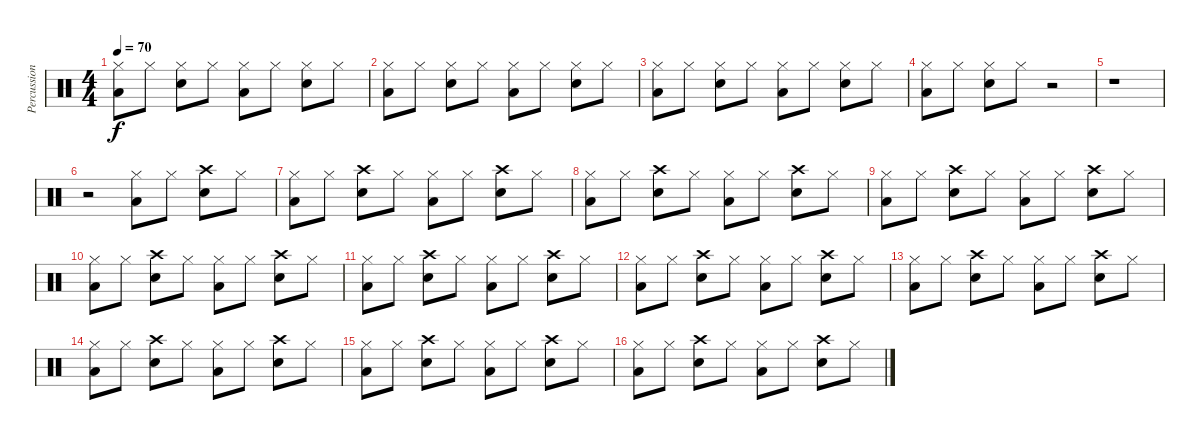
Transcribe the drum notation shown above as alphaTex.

\track ("Percussions" "Percussion") {instrument percussion}
\staff {score}
\articulation defaults
\ts (4 4)
\tempo 70
\clef neutral
\ks c
("Hi-Hat (closed)" "Low Floor Tom (hit)").8{dy f} "Hi-Hat (closed)".8 ("Hi-Hat (closed)" "Electric Snare (hit)").8 "Hi-Hat (closed)".8 ("Hi-Hat (closed)" "Low Floor Tom (hit)").8 "Hi-Hat (closed)".8 ("Hi-Hat (closed)" "Electric Snare (hit)").8 "Hi-Hat (closed)".8 |
("Hi-Hat (closed)" "Low Floor Tom (hit)").8 "Hi-Hat (closed)".8 ("Hi-Hat (closed)" "Electric Snare (hit)").8 "Hi-Hat (closed)".8 ("Hi-Hat (closed)" "Low Floor Tom (hit)").8 "Hi-Hat (closed)".8 ("Hi-Hat (closed)" "Electric Snare (hit)").8 "Hi-Hat (closed)".8 |
("Hi-Hat (closed)" "Low Floor Tom (hit)").8 "Hi-Hat (closed)".8 ("Hi-Hat (closed)" "Electric Snare (hit)").8 "Hi-Hat (closed)".8 ("Hi-Hat (closed)" "Low Floor Tom (hit)").8 "Hi-Hat (closed)".8 ("Hi-Hat (closed)" "Electric Snare (hit)").8 "Hi-Hat (closed)".8 |
("Hi-Hat (closed)" "Low Floor Tom (hit)").8 "Hi-Hat (closed)".8 ("Hi-Hat (closed)" "Electric Snare (hit)").8 "Hi-Hat (closed)".8 r.2 |
r.1 |
r.2 ("Hi-Hat (closed)" "Low Floor Tom (hit)").8 "Hi-Hat (closed)".8 ("Electric Snare (hit)" "Crash high (hit)").8 "Hi-Hat (closed)".8 |
("Hi-Hat (closed)" "Low Floor Tom (hit)").8 "Hi-Hat (closed)".8 ("Electric Snare (hit)" "Crash high (hit)").8 "Hi-Hat (closed)".8 ("Hi-Hat (closed)" "Low Floor Tom (hit)").8 "Hi-Hat (closed)".8 ("Electric Snare (hit)" "Crash high (hit)").8 "Hi-Hat (closed)".8 |
("Hi-Hat (closed)" "Low Floor Tom (hit)").8 "Hi-Hat (closed)".8 ("Electric Snare (hit)" "Crash high (hit)").8 "Hi-Hat (closed)".8 ("Hi-Hat (closed)" "Low Floor Tom (hit)").8 "Hi-Hat (closed)".8 ("Electric Snare (hit)" "Crash high (hit)").8 "Hi-Hat (closed)".8 |
("Hi-Hat (closed)" "Low Floor Tom (hit)").8 "Hi-Hat (closed)".8 ("Electric Snare (hit)" "Crash high (hit)").8 "Hi-Hat (closed)".8 ("Hi-Hat (closed)" "Low Floor Tom (hit)").8 "Hi-Hat (closed)".8 ("Electric Snare (hit)" "Crash high (hit)").8 "Hi-Hat (closed)".8 |
("Hi-Hat (closed)" "Low Floor Tom (hit)").8 "Hi-Hat (closed)".8 ("Electric Snare (hit)" "Crash high (hit)").8 "Hi-Hat (closed)".8 ("Hi-Hat (closed)" "Low Floor Tom (hit)").8 "Hi-Hat (closed)".8 ("Electric Snare (hit)" "Crash high (hit)").8 "Hi-Hat (closed)".8 |
("Hi-Hat (closed)" "Low Floor Tom (hit)").8 "Hi-Hat (closed)".8 ("Electric Snare (hit)" "Crash high (hit)").8 "Hi-Hat (closed)".8 ("Hi-Hat (closed)" "Low Floor Tom (hit)").8 "Hi-Hat (closed)".8 ("Electric Snare (hit)" "Crash high (hit)").8 "Hi-Hat (closed)".8 |
("Hi-Hat (closed)" "Low Floor Tom (hit)").8 "Hi-Hat (closed)".8 ("Electric Snare (hit)" "Crash high (hit)").8 "Hi-Hat (closed)".8 ("Hi-Hat (closed)" "Low Floor Tom (hit)").8 "Hi-Hat (closed)".8 ("Electric Snare (hit)" "Crash high (hit)").8 "Hi-Hat (closed)".8 |
("Hi-Hat (closed)" "Low Floor Tom (hit)").8 "Hi-Hat (closed)".8 ("Electric Snare (hit)" "Crash high (hit)").8 "Hi-Hat (closed)".8 ("Hi-Hat (closed)" "Low Floor Tom (hit)").8 "Hi-Hat (closed)".8 ("Electric Snare (hit)" "Crash high (hit)").8 "Hi-Hat (closed)".8 |
("Hi-Hat (closed)" "Low Floor Tom (hit)").8 "Hi-Hat (closed)".8 ("Electric Snare (hit)" "Crash high (hit)").8 "Hi-Hat (closed)".8 ("Hi-Hat (closed)" "Low Floor Tom (hit)").8 "Hi-Hat (closed)".8 ("Electric Snare (hit)" "Crash high (hit)").8 "Hi-Hat (closed)".8 |
("Hi-Hat (closed)" "Low Floor Tom (hit)").8 "Hi-Hat (closed)".8 ("Electric Snare (hit)" "Crash high (hit)").8 "Hi-Hat (closed)".8 ("Hi-Hat (closed)" "Low Floor Tom (hit)").8 "Hi-Hat (closed)".8 ("Electric Snare (hit)" "Crash high (hit)").8 "Hi-Hat (closed)".8 |
("Hi-Hat (closed)" "Low Floor Tom (hit)").8 "Hi-Hat (closed)".8 ("Electric Snare (hit)" "Crash high (hit)").8 "Hi-Hat (closed)".8 ("Hi-Hat (closed)" "Low Floor Tom (hit)").8 "Hi-Hat (closed)".8 ("Electric Snare (hit)" "Crash high (hit)").8 "Hi-Hat (closed)".8
